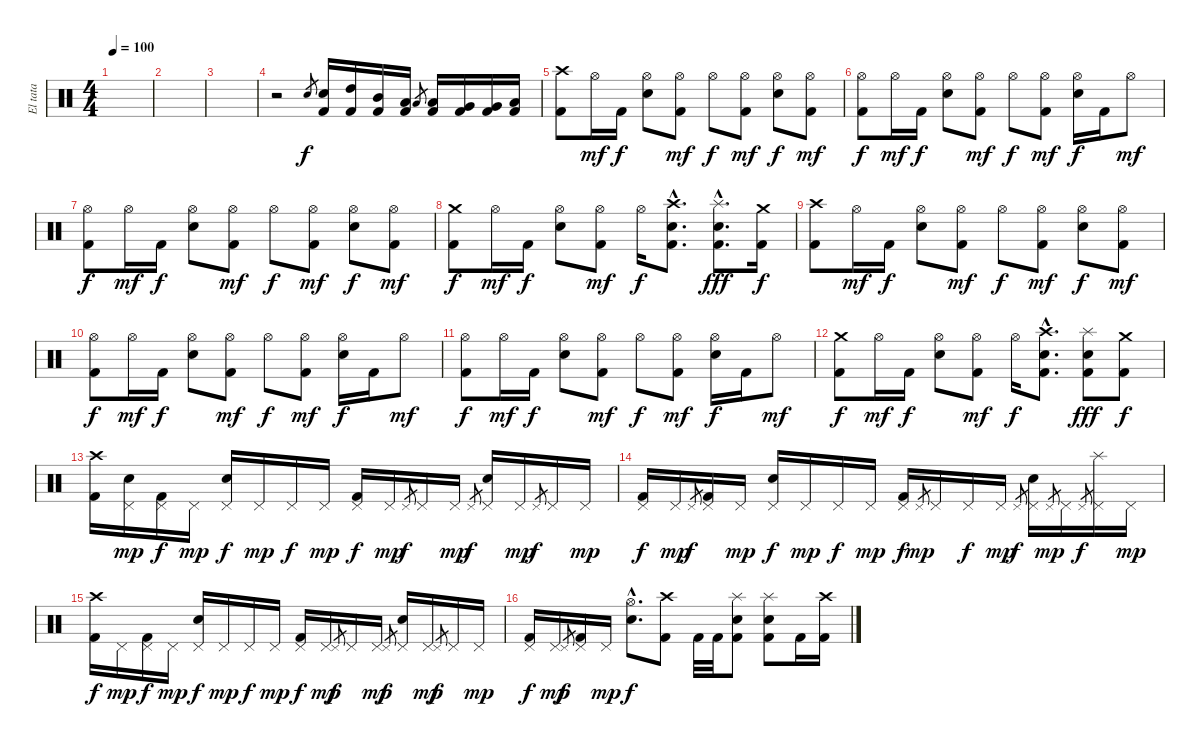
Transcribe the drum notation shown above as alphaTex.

\track ("El tata" "El tata") {instrument percussion}
\staff {score}
\articulation defaults
\ts (4 4)
\tempo 100
\clef neutral
\ks c
|
|
|
r.2 "Electric Snare (hit)".8{gr} ("Kick (hit) 2" "Electric Snare (hit)").16{dy f} ("Kick (hit) 2" "High Tom (hit)").16 ("Kick (hit) 2" "Mid Tom (hit)").16 ("Kick (hit) 2" "Low Tom (hit)").16 "Low Tom (hit)".8{gr} ("Kick (hit) 2" "Low Tom (hit)").16 ("Kick (hit) 2" "Very Low Tom (hit)").16 ("Kick (hit) 2" "Very Low Tom (hit)").16 ("Kick (hit) 2" "Low Floor Tom (hit)").16 |
("Kick (hit) 2" "Crash high (hit)").8 "Hi-Hat (open)".16{dy mf} "Kick (hit) 2".16{dy f} ("Electric Snare (hit)" "Hi-Hat (open)").8 ("Kick (hit) 2" "Hi-Hat (open)").8{dy mf} "Hi-Hat (open)".8{dy f} ("Kick (hit) 2" "Hi-Hat (open)").8{dy mf} ("Electric Snare (hit)" "Hi-Hat (open)").8{dy f} ("Kick (hit) 2" "Hi-Hat (open)").8{dy mf} |
("Kick (hit) 2" "Hi-Hat (open)").8{dy f} "Hi-Hat (open)".16{dy mf} "Kick (hit) 2".16{dy f} ("Electric Snare (hit)" "Hi-Hat (open)").8 ("Kick (hit) 2" "Hi-Hat (open)").8{dy mf} "Hi-Hat (open)".8{dy f} ("Kick (hit) 2" "Hi-Hat (open)").8{dy mf} ("Electric Snare (hit)" "Hi-Hat (open)").16{dy f} "Kick (hit) 2".16 "Hi-Hat (open)".8{dy mf} |
("Kick (hit) 2" "Hi-Hat (open)").8{dy f} "Hi-Hat (open)".16{dy mf} "Kick (hit) 2".16{dy f} ("Electric Snare (hit)" "Hi-Hat (open)").8 ("Kick (hit) 2" "Hi-Hat (open)").8{dy mf} "Hi-Hat (open)".8{dy f} ("Kick (hit) 2" "Hi-Hat (open)").8{dy mf} ("Electric Snare (hit)" "Hi-Hat (open)").8{dy f} ("Kick (hit) 2" "Hi-Hat (open)").8{dy mf} |
("Kick (hit) 2" "Crash medium (hit)").8{dy f} "Hi-Hat (open)".16{dy mf} "Kick (hit) 2".16{dy f} ("Electric Snare (hit)" "Hi-Hat (open)").8 ("Kick (hit) 2" "Hi-Hat (open)").8{dy mf} "Hi-Hat (open)".16{dy f} ("Kick (hit) 2"{hac} "Electric Snare (hit)"{hac} "Crash high (hit)"{hac}).8{d} ("Kick (hit) 2"{hac} "Electric Snare (hit)"{hac} "Splash (hit)"{hac}).8{d dy fff} ("Kick (hit) 2" "Crash medium (hit)").16{dy f} |
("Kick (hit) 2" "Crash high (hit)").8 "Hi-Hat (open)".16{dy mf} "Kick (hit) 2".16{dy f} ("Electric Snare (hit)" "Hi-Hat (open)").8 ("Kick (hit) 2" "Hi-Hat (open)").8{dy mf} "Hi-Hat (open)".8{dy f} ("Kick (hit) 2" "Hi-Hat (open)").8{dy mf} ("Electric Snare (hit)" "Hi-Hat (open)").8{dy f} ("Kick (hit) 2" "Hi-Hat (open)").8{dy mf} |
("Kick (hit) 2" "Hi-Hat (open)").8{dy f} "Hi-Hat (open)".16{dy mf} "Kick (hit) 2".16{dy f} ("Electric Snare (hit)" "Hi-Hat (open)").8 ("Kick (hit) 2" "Hi-Hat (open)").8{dy mf} "Hi-Hat (open)".8{dy f} ("Kick (hit) 2" "Hi-Hat (open)").8{dy mf} ("Electric Snare (hit)" "Hi-Hat (open)").16{dy f} "Kick (hit) 2".16 "Hi-Hat (open)".8{dy mf} |
("Kick (hit) 2" "Hi-Hat (open)").8{dy f} "Hi-Hat (open)".16{dy mf} "Kick (hit) 2".16{dy f} ("Electric Snare (hit)" "Hi-Hat (open)").8 ("Kick (hit) 2" "Hi-Hat (open)").8{dy mf} "Hi-Hat (open)".8{dy f} ("Kick (hit) 2" "Hi-Hat (open)").8{dy mf} ("Electric Snare (hit)" "Hi-Hat (open)").16{dy f} "Kick (hit) 2".16 "Hi-Hat (open)".8{dy mf} |
("Kick (hit) 2" "Crash medium (hit)").8{dy f} "Hi-Hat (open)".16{dy mf} "Kick (hit) 2".16{dy f} ("Electric Snare (hit)" "Hi-Hat (open)").8 ("Kick (hit) 2" "Hi-Hat (open)").8{dy mf} "Hi-Hat (open)".16{dy f} ("Kick (hit) 2"{hac} "Electric Snare (hit)"{hac} "Crash high (hit)"{hac}).8{d} ("Kick (hit) 2" "Electric Snare (hit)" "Splash (hit)").8{dy fff} ("Kick (hit) 2" "Crash medium (hit)").8{dy f} |
("Kick (hit) 2" "Crash high (hit)").16 ("Electric Snare (hit)" "Pedal Hi-Hat (hit)").16{dy mp} ("Kick (hit) 2" "Pedal Hi-Hat (hit)").16{dy f} "Pedal Hi-Hat (hit)".16{dy mp} ("Electric Snare (hit)" "Pedal Hi-Hat (hit)").16{dy f} "Pedal Hi-Hat (hit)".16{dy mp} "Pedal Hi-Hat (hit)".16{dy f} "Pedal Hi-Hat (hit)".16{dy mp} ("Kick (hit) 2" "Pedal Hi-Hat (hit)").16{dy f} "Pedal Hi-Hat (hit)".16{dy mp} "Pedal Hi-Hat (hit)".8{gr dy f} "Pedal Hi-Hat (hit)".16 "Pedal Hi-Hat (hit)".16{dy mp} "Pedal Hi-Hat (hit)".8{gr dy f} ("Electric Snare (hit)" "Pedal Hi-Hat (hit)").16 "Pedal Hi-Hat (hit)".16{dy mp} "Pedal Hi-Hat (hit)".8{gr dy f} "Pedal Hi-Hat (hit)".16 "Pedal Hi-Hat (hit)".16{dy mp} |
("Kick (hit) 2" "Pedal Hi-Hat (hit)").16{dy f} "Pedal Hi-Hat (hit)".16{dy mp} "Pedal Hi-Hat (hit)".8{gr dy f} ("Kick (hit) 2" "Pedal Hi-Hat (hit)").16 "Pedal Hi-Hat (hit)".16{dy mp} ("Electric Snare (hit)" "Pedal Hi-Hat (hit)").16{dy f} "Pedal Hi-Hat (hit)".16{dy mp} "Pedal Hi-Hat (hit)".16{dy f} "Pedal Hi-Hat (hit)".16{dy mp} ("Kick (hit) 2" "Pedal Hi-Hat (hit)").16{dy f} "Pedal Hi-Hat (hit)".8{gr dy mp} "Pedal Hi-Hat (hit)".16 "Pedal Hi-Hat (hit)".16{dy f} "Pedal Hi-Hat (hit)".16{dy mp} "Pedal Hi-Hat (hit)".8{gr dy f} ("Electric Snare (hit)" "Pedal Hi-Hat (hit)").16 "Pedal Hi-Hat (hit)".8{gr dy mp} "Pedal Hi-Hat (hit)".16 "Pedal Hi-Hat (hit)".8{gr dy f} ("Splash (hit)" "Pedal Hi-Hat (hit)").16 "Pedal Hi-Hat (hit)".16{dy mp} |
("Kick (hit) 2" "Crash high (hit)").16{dy f} "Pedal Hi-Hat (hit)".16{dy mp} ("Kick (hit) 2" "Pedal Hi-Hat (hit)").16{dy f} "Pedal Hi-Hat (hit)".16{dy mp} ("Electric Snare (hit)" "Pedal Hi-Hat (hit)").16{dy f} "Pedal Hi-Hat (hit)".16{dy mp} "Pedal Hi-Hat (hit)".16{dy f} "Pedal Hi-Hat (hit)".16{dy mp} ("Kick (hit) 2" "Pedal Hi-Hat (hit)").16{dy f} "Pedal Hi-Hat (hit)".16{dy mp} "Pedal Hi-Hat (hit)".8{gr dy f} "Pedal Hi-Hat (hit)".16 "Pedal Hi-Hat (hit)".16{dy mp} "Pedal Hi-Hat (hit)".8{gr dy f} ("Electric Snare (hit)" "Pedal Hi-Hat (hit)").16 "Pedal Hi-Hat (hit)".16{dy mp} "Pedal Hi-Hat (hit)".8{gr dy f} "Pedal Hi-Hat (hit)".16 "Pedal Hi-Hat (hit)".16{dy mp} |
("Kick (hit) 2" "Pedal Hi-Hat (hit)").16{dy f} "Pedal Hi-Hat (hit)".16{dy mp} "Pedal Hi-Hat (hit)".8{gr dy f} ("Kick (hit) 2" "Pedal Hi-Hat (hit)").16 "Pedal Hi-Hat (hit)".16{dy mp} ("Electric Snare (hit)"{hac} "Hi-Hat (open)"{hac}).8{d dy f} ("Kick (hit) 2" "Crash high (hit)").8 "Kick (hit) 2".32 "Kick (hit) 2".32 ("Kick (hit) 2" "Electric Snare (hit)" "Splash (hit)").8 ("Kick (hit) 2" "Electric Snare (hit)" "Splash (hit)").8 "Kick (hit) 2".16 ("Kick (hit) 2" "Crash high (hit)").16
